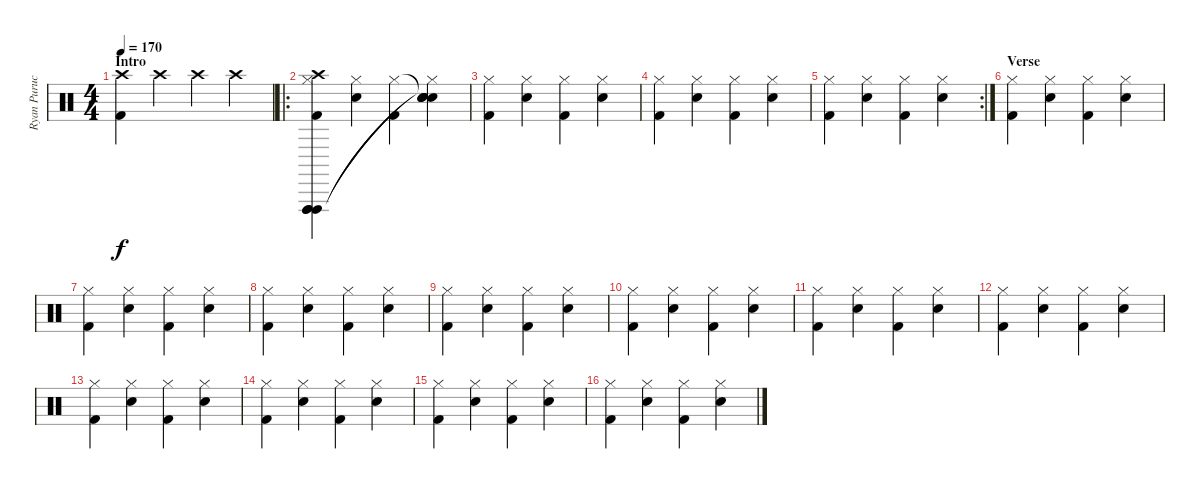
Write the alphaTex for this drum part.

\track ("Ryan Purucker" "Ryan Puruc") {instrument percussion}
\staff {score}
\articulation defaults
\ts (4 4)
\section ("" "Intro")
\tempo 170
\clef neutral
\ks c
("Kick (hit) 2" "Crash high (hit)").4{dy f} "Crash high (hit)".4 "Crash high (hit)".4 "Crash high (hit)".4 |
\ro
("Vibraslap (hit)" "Hi-Hat (closed)" "Vibraslap (hit)" "Kick (hit) 2" "Vibraslap (hit)" "Crash high (hit)").4 ("Hi-Hat (closed)" "Snare (hit) 2").4 ("Hi-Hat (closed)" "Kick (hit) 2").4 ("Snare (hit)"{t} "Hi-Hat (closed)" "Snare (hit)"{t} "Snare (hit) 2" "Snare (hit)"{t}).4 |
("Hi-Hat (closed)" "Kick (hit) 2").4 ("Hi-Hat (closed)" "Snare (hit) 2").4 ("Hi-Hat (closed)" "Kick (hit) 2").4 ("Hi-Hat (closed)" "Snare (hit) 2").4 |
("Hi-Hat (closed)" "Kick (hit) 2").4 ("Hi-Hat (closed)" "Snare (hit) 2").4 ("Hi-Hat (closed)" "Kick (hit) 2").4 ("Hi-Hat (closed)" "Snare (hit) 2").4 |
\rc 2
("Hi-Hat (closed)" "Kick (hit) 2").4 ("Hi-Hat (closed)" "Snare (hit) 2").4 ("Hi-Hat (closed)" "Kick (hit) 2").4 ("Hi-Hat (closed)" "Snare (hit) 2").4 |
\section ("" "Verse")
("Hi-Hat (closed)" "Kick (hit) 2").4 ("Hi-Hat (closed)" "Snare (hit) 2").4 ("Hi-Hat (closed)" "Kick (hit) 2").4 ("Hi-Hat (closed)" "Snare (hit) 2").4 |
("Hi-Hat (closed)" "Kick (hit) 2").4 ("Hi-Hat (closed)" "Snare (hit) 2").4 ("Hi-Hat (closed)" "Kick (hit) 2").4 ("Hi-Hat (closed)" "Snare (hit) 2").4 |
("Hi-Hat (closed)" "Kick (hit) 2").4 ("Hi-Hat (closed)" "Snare (hit) 2").4 ("Hi-Hat (closed)" "Kick (hit) 2").4 ("Hi-Hat (closed)" "Snare (hit) 2").4 |
("Hi-Hat (closed)" "Kick (hit) 2").4 ("Hi-Hat (closed)" "Snare (hit) 2").4 ("Hi-Hat (closed)" "Kick (hit) 2").4 ("Hi-Hat (closed)" "Snare (hit) 2").4 |
("Hi-Hat (closed)" "Kick (hit) 2").4 ("Hi-Hat (closed)" "Snare (hit) 2").4 ("Hi-Hat (closed)" "Kick (hit) 2").4 ("Hi-Hat (closed)" "Snare (hit) 2").4 |
("Hi-Hat (closed)" "Kick (hit) 2").4 ("Hi-Hat (closed)" "Snare (hit) 2").4 ("Hi-Hat (closed)" "Kick (hit) 2").4 ("Hi-Hat (closed)" "Snare (hit) 2").4 |
("Hi-Hat (closed)" "Kick (hit) 2").4 ("Hi-Hat (closed)" "Snare (hit) 2").4 ("Hi-Hat (closed)" "Kick (hit) 2").4 ("Hi-Hat (closed)" "Snare (hit) 2").4 |
("Hi-Hat (closed)" "Kick (hit) 2").4 ("Hi-Hat (closed)" "Snare (hit) 2").4 ("Hi-Hat (closed)" "Kick (hit) 2").4 ("Hi-Hat (closed)" "Snare (hit) 2").4 |
("Hi-Hat (closed)" "Kick (hit) 2").4 ("Hi-Hat (closed)" "Snare (hit) 2").4 ("Hi-Hat (closed)" "Kick (hit) 2").4 ("Hi-Hat (closed)" "Snare (hit) 2").4 |
("Hi-Hat (closed)" "Kick (hit) 2").4 ("Hi-Hat (closed)" "Snare (hit) 2").4 ("Hi-Hat (closed)" "Kick (hit) 2").4 ("Hi-Hat (closed)" "Snare (hit) 2").4 |
("Hi-Hat (closed)" "Kick (hit) 2").4 ("Hi-Hat (closed)" "Snare (hit) 2").4 ("Hi-Hat (closed)" "Kick (hit) 2").4 ("Hi-Hat (closed)" "Snare (hit) 2").4
